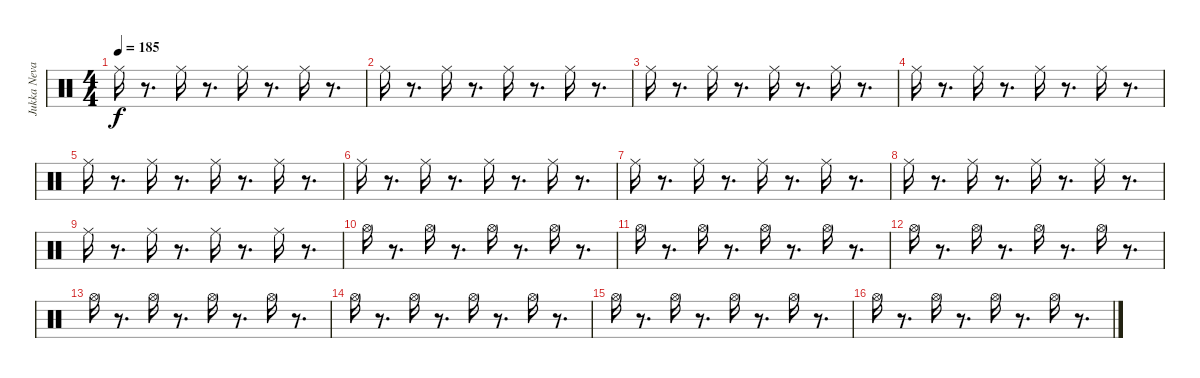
\track ("Jukka Nevalinen" "Jukka Neva") {instrument percussion}
\staff {score}
\articulation defaults
\ts (4 4)
\tempo 185
\clef neutral
\ks c "Ride (middle)".16{dy f}
r.8{d} "Ride (middle)".16 r.8{d} "Ride (middle)".16 r.8{d} "Ride (middle)".16 r.8{d} |
"Ride (middle)".16 r.8{d} "Ride (middle)".16 r.8{d} "Ride (middle)".16 r.8{d} "Ride (middle)".16 r.8{d} |
"Ride (middle)".16 r.8{d} "Ride (middle)".16 r.8{d} "Ride (middle)".16 r.8{d} "Ride (middle)".16 r.8{d} |
"Ride (middle)".16 r.8{d} "Ride (middle)".16 r.8{d} "Ride (middle)".16 r.8{d} "Ride (middle)".16 r.8{d} |
"Ride (middle)".16 r.8{d} "Ride (middle)".16 r.8{d} "Ride (middle)".16 r.8{d} "Ride (middle)".16 r.8{d} |
"Ride (middle)".16 r.8{d} "Ride (middle)".16 r.8{d} "Ride (middle)".16 r.8{d} "Ride (middle)".16 r.8{d} |
"Ride (middle)".16 r.8{d} "Ride (middle)".16 r.8{d} "Ride (middle)".16 r.8{d} "Ride (middle)".16 r.8{d} |
"Ride (middle)".16 r.8{d} "Ride (middle)".16 r.8{d} "Ride (middle)".16 r.8{d} "Ride (middle)".16 r.8{d} |
"Ride (middle)".16 r.8{d} "Ride (middle)".16 r.8{d} "Ride (middle)".16 r.8{d} "Ride (middle)".16 r.8{d} |
"Hi-Hat (open)".16{volume 12} r.8{d} "Hi-Hat (open)".16{volume 12} r.8{d} "Hi-Hat (open)".16{volume 12} r.8{d} "Hi-Hat (open)".16{volume 12} r.8{d} |
"Hi-Hat (open)".16{volume 12} r.8{d} "Hi-Hat (open)".16{volume 12} r.8{d} "Hi-Hat (open)".16{volume 12} r.8{d} "Hi-Hat (open)".16{volume 12} r.8{d} |
"Hi-Hat (open)".16{volume 12} r.8{d} "Hi-Hat (open)".16{volume 11} r.8{d} "Hi-Hat (open)".16{volume 11} r.8{d} "Hi-Hat (open)".16{volume 11} r.8{d} |
"Hi-Hat (open)".16{volume 11} r.8{d} "Hi-Hat (open)".16{volume 11} r.8{d} "Hi-Hat (open)".16{volume 11} r.8{d} "Hi-Hat (open)".16{volume 11} r.8{d} |
"Hi-Hat (open)".16{volume 10} r.8{d} "Hi-Hat (open)".16{volume 10} r.8{d} "Hi-Hat (open)".16{volume 10} r.8{d} "Hi-Hat (open)".16{volume 10} r.8{d} |
"Hi-Hat (open)".16{volume 10} r.8{d} "Hi-Hat (open)".16{volume 10} r.8{d} "Hi-Hat (open)".16{volume 10} r.8{d} "Hi-Hat (open)".16{volume 10} r.8{d} |
"Hi-Hat (open)".16{volume 9} r.8{d} "Hi-Hat (open)".16{volume 9} r.8{d} "Hi-Hat (open)".16{volume 9} r.8{d} "Hi-Hat (open)".16{volume 9} r.8{d}
